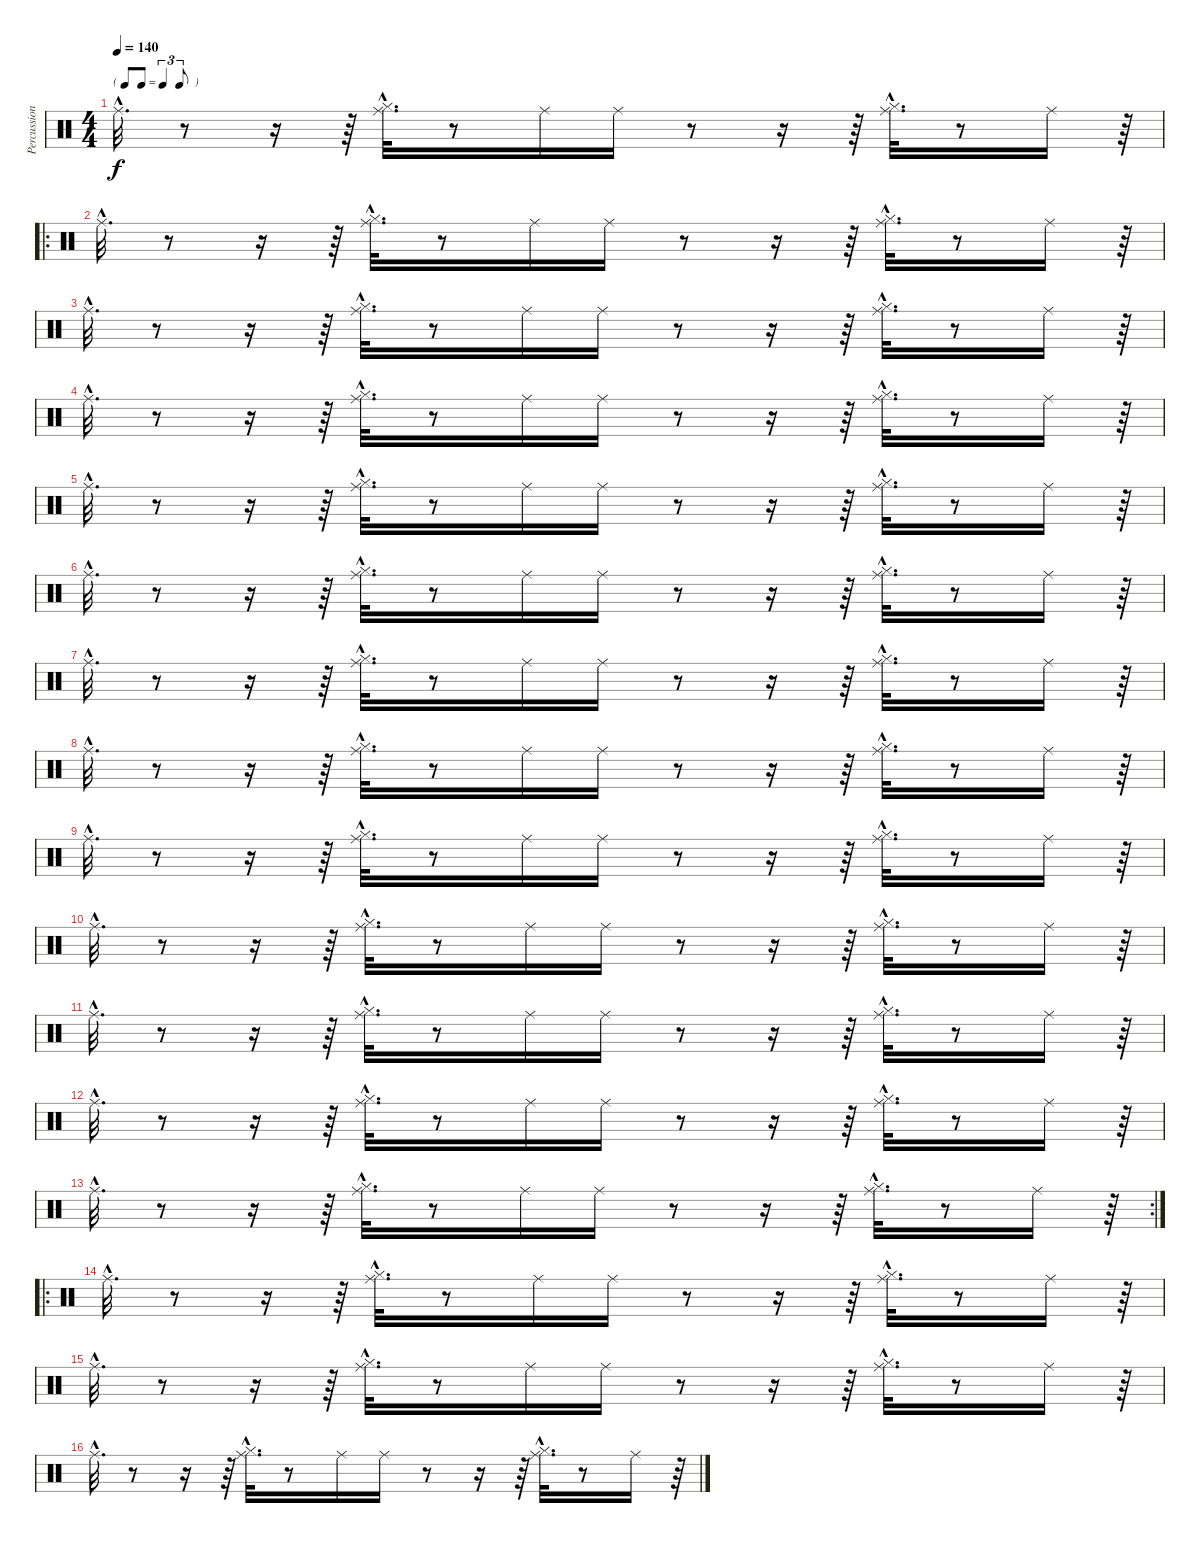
\track ("Percussions" "Percussion") {instrument percussion}
\staff {score}
\articulation defaults
\ts (4 4)
\tf triplet8th
\tempo 140
\clef neutral
\ks c "Ride (middle)"{hac}.32{d dy f}
r.8 r.16 r.64 ("Hi-Hat (closed)"{hac} "Ride (middle)"{hac}).32{d} r.8 "Ride (middle)".16 "Ride (middle)".16 r.8 r.16 r.64 ("Hi-Hat (closed)"{hac} "Ride (middle)"{hac}).32{d} r.8 "Ride (middle)".16 r.64 |
\ro "Ride (middle)"{hac}.32{d}
r.8 r.16 r.64 ("Hi-Hat (closed)"{hac} "Ride (middle)"{hac}).32{d} r.8 "Ride (middle)".16 "Ride (middle)".16 r.8 r.16 r.64 ("Hi-Hat (closed)"{hac} "Ride (middle)"{hac}).32{d} r.8 "Ride (middle)".16 r.64 |
"Ride (middle)"{hac}.32{d} r.8 r.16 r.64 ("Hi-Hat (closed)"{hac} "Ride (middle)"{hac}).32{d} r.8 "Ride (middle)".16 "Ride (middle)".16 r.8 r.16 r.64 ("Hi-Hat (closed)"{hac} "Ride (middle)"{hac}).32{d} r.8 "Ride (middle)".16 r.64 |
"Ride (middle)"{hac}.32{d} r.8 r.16 r.64 ("Hi-Hat (closed)"{hac} "Ride (middle)"{hac}).32{d} r.8 "Ride (middle)".16 "Ride (middle)".16 r.8 r.16 r.64 ("Hi-Hat (closed)"{hac} "Ride (middle)"{hac}).32{d} r.8 "Ride (middle)".16 r.64 |
"Ride (middle)"{hac}.32{d} r.8 r.16 r.64 ("Hi-Hat (closed)"{hac} "Ride (middle)"{hac}).32{d} r.8 "Ride (middle)".16 "Ride (middle)".16 r.8 r.16 r.64 ("Hi-Hat (closed)"{hac} "Ride (middle)"{hac}).32{d} r.8 "Ride (middle)".16 r.64 |
"Ride (middle)"{hac}.32{d} r.8 r.16 r.64 ("Hi-Hat (closed)"{hac} "Ride (middle)"{hac}).32{d} r.8 "Ride (middle)".16 "Ride (middle)".16 r.8 r.16 r.64 ("Hi-Hat (closed)"{hac} "Ride (middle)"{hac}).32{d} r.8 "Ride (middle)".16 r.64 |
"Ride (middle)"{hac}.32{d} r.8 r.16 r.64 ("Hi-Hat (closed)"{hac} "Ride (middle)"{hac}).32{d} r.8 "Ride (middle)".16 "Ride (middle)".16 r.8 r.16 r.64 ("Hi-Hat (closed)"{hac} "Ride (middle)"{hac}).32{d} r.8 "Ride (middle)".16 r.64 |
"Ride (middle)"{hac}.32{d} r.8 r.16 r.64 ("Hi-Hat (closed)"{hac} "Ride (middle)"{hac}).32{d} r.8 "Ride (middle)".16 "Ride (middle)".16 r.8 r.16 r.64 ("Hi-Hat (closed)"{hac} "Ride (middle)"{hac}).32{d} r.8 "Ride (middle)".16 r.64 |
"Ride (middle)"{hac}.32{d} r.8 r.16 r.64 ("Hi-Hat (closed)"{hac} "Ride (middle)"{hac}).32{d} r.8 "Ride (middle)".16 "Ride (middle)".16 r.8 r.16 r.64 ("Hi-Hat (closed)"{hac} "Ride (middle)"{hac}).32{d} r.8 "Ride (middle)".16 r.64 |
"Ride (middle)"{hac}.32{d} r.8 r.16 r.64 ("Hi-Hat (closed)"{hac} "Ride (middle)"{hac}).32{d} r.8 "Ride (middle)".16 "Ride (middle)".16 r.8 r.16 r.64 ("Hi-Hat (closed)"{hac} "Ride (middle)"{hac}).32{d} r.8 "Ride (middle)".16 r.64 |
"Ride (middle)"{hac}.32{d} r.8 r.16 r.64 ("Hi-Hat (closed)"{hac} "Ride (middle)"{hac}).32{d} r.8 "Ride (middle)".16 "Ride (middle)".16 r.8 r.16 r.64 ("Hi-Hat (closed)"{hac} "Ride (middle)"{hac}).32{d} r.8 "Ride (middle)".16 r.64 |
"Ride (middle)"{hac}.32{d} r.8 r.16 r.64 ("Hi-Hat (closed)"{hac} "Ride (middle)"{hac}).32{d} r.8 "Ride (middle)".16 "Ride (middle)".16 r.8 r.16 r.64 ("Hi-Hat (closed)"{hac} "Ride (middle)"{hac}).32{d} r.8 "Ride (middle)".16 r.64 |
\rc 2 "Ride (middle)"{hac}.32{d}
r.8 r.16 r.64 ("Hi-Hat (closed)"{hac} "Ride (middle)"{hac}).32{d} r.8 "Ride (middle)".16 "Ride (middle)".16 r.8 r.16 r.64 ("Hi-Hat (closed)"{hac} "Ride (middle)"{hac}).32{d} r.8 "Ride (middle)".16 r.64 |
\ro "Ride (middle)"{hac}.32{d}
r.8 r.16 r.64 ("Hi-Hat (closed)"{hac} "Ride (middle)"{hac}).32{d} r.8 "Ride (middle)".16 "Ride (middle)".16 r.8 r.16 r.64 ("Hi-Hat (closed)"{hac} "Ride (middle)"{hac}).32{d} r.8 "Ride (middle)".16 r.64 |
"Ride (middle)"{hac}.32{d} r.8 r.16 r.64 ("Hi-Hat (closed)"{hac} "Ride (middle)"{hac}).32{d} r.8 "Ride (middle)".16 "Ride (middle)".16 r.8 r.16 r.64 ("Hi-Hat (closed)"{hac} "Ride (middle)"{hac}).32{d} r.8 "Ride (middle)".16 r.64 |
"Ride (middle)"{hac}.32{d} r.8 r.16 r.64 ("Hi-Hat (closed)"{hac} "Ride (middle)"{hac}).32{d} r.8 "Ride (middle)".16 "Ride (middle)".16 r.8 r.16 r.64 ("Hi-Hat (closed)"{hac} "Ride (middle)"{hac}).32{d} r.8 "Ride (middle)".16 r.64
